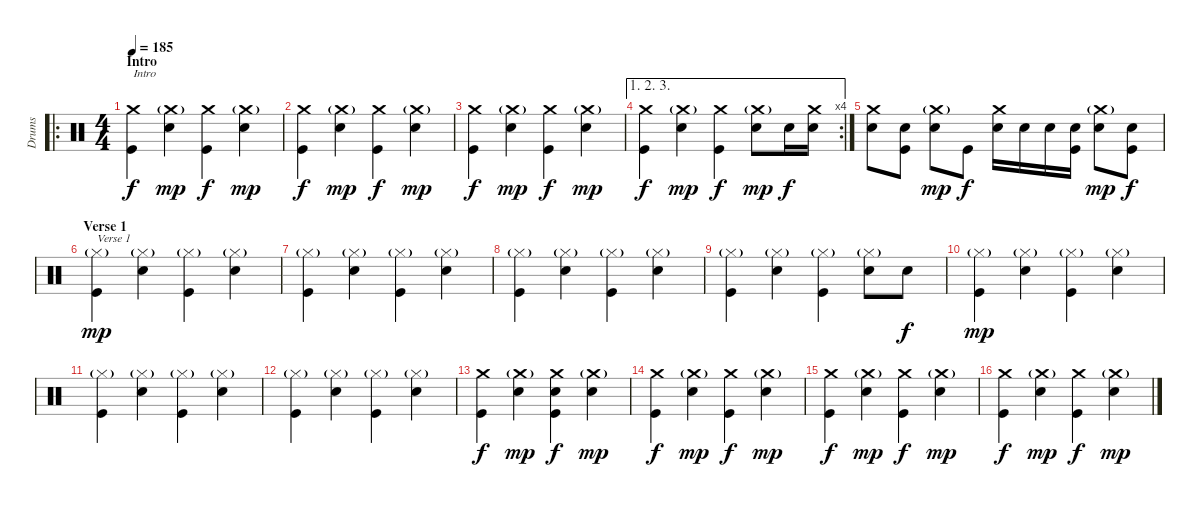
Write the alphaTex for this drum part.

\track ("Drums" "Drums") {instrument percussion}
\staff {score}
\articulation defaults
\ro
\ts (4 4)
\section ("" "Intro")
\tempo 185
\clef neutral
\ks c
("Crash medium (hit)" "Kick (hit)").4{txt "Intro" dy f} ("Crash medium (hit)"{g} "Snare (hit) 2").4{dy mp} ("Crash medium (hit)" "Kick (hit)").4{dy f} ("Crash medium (hit)"{g} "Snare (hit) 2").4{dy mp} |
("Crash medium (hit)" "Kick (hit)").4{dy f} ("Crash medium (hit)"{g} "Snare (hit) 2").4{dy mp} ("Crash medium (hit)" "Kick (hit)").4{dy f} ("Crash medium (hit)"{g} "Snare (hit) 2").4{dy mp} |
("Crash medium (hit)" "Kick (hit)").4{dy f} ("Crash medium (hit)"{g} "Snare (hit) 2").4{dy mp} ("Crash medium (hit)" "Kick (hit)").4{dy f} ("Crash medium (hit)"{g} "Snare (hit) 2").4{dy mp} |
\ae (1 2 3)
\rc 4
("Crash medium (hit)" "Kick (hit)").4{dy f} ("Crash medium (hit)"{g} "Snare (hit) 2").4{dy mp} ("Crash medium (hit)" "Kick (hit)").4{dy f} ("Crash medium (hit)"{g} "Snare (hit) 2").8{dy mp} "Snare (hit) 2".16{dy f} ("Crash medium (hit)" "Snare (hit) 2").16 |
("Crash medium (hit)" "Snare (hit) 2").8 ("Snare (hit) 2" "Kick (hit)").8 ("Crash medium (hit)"{g} "Snare (hit) 2").8{dy mp} "Kick (hit)".8{dy f} ("Crash medium (hit)" "Snare (hit) 2").16 "Snare (hit) 2".16 "Snare (hit) 2".16 ("Snare (hit) 2" "Kick (hit)").16 ("Crash medium (hit)"{g} "Snare (hit) 2").8{dy mp} ("Snare (hit) 2" "Kick (hit)").8{dy f} |
\section ("" "Verse 1")
("Hi-Hat (closed)"{g} "Kick (hit)").4{txt "Verse 1" dy mp} ("Hi-Hat (closed)"{g} "Snare (hit) 2").4 ("Hi-Hat (closed)"{g} "Kick (hit)").4 ("Hi-Hat (closed)"{g} "Snare (hit) 2").4 |
("Hi-Hat (closed)"{g} "Kick (hit)").4 ("Hi-Hat (closed)"{g} "Snare (hit) 2").4 ("Hi-Hat (closed)"{g} "Kick (hit)").4 ("Hi-Hat (closed)"{g} "Snare (hit) 2").4 |
("Hi-Hat (closed)"{g} "Kick (hit)").4 ("Hi-Hat (closed)"{g} "Snare (hit) 2").4 ("Hi-Hat (closed)"{g} "Kick (hit)").4 ("Hi-Hat (closed)"{g} "Snare (hit) 2").4 |
("Hi-Hat (closed)"{g} "Kick (hit)").4 ("Hi-Hat (closed)"{g} "Snare (hit) 2").4 ("Hi-Hat (closed)"{g} "Kick (hit)").4 ("Hi-Hat (closed)"{g} "Electric Snare (hit)").8 "Snare (hit) 2".8{dy f} |
("Hi-Hat (closed)"{g} "Kick (hit)").4{dy mp} ("Hi-Hat (closed)"{g} "Snare (hit) 2").4 ("Hi-Hat (closed)"{g} "Kick (hit)").4 ("Hi-Hat (closed)"{g} "Snare (hit) 2").4 |
("Hi-Hat (closed)"{g} "Kick (hit)").4 ("Hi-Hat (closed)"{g} "Snare (hit) 2").4 ("Hi-Hat (closed)"{g} "Kick (hit)").4 ("Hi-Hat (closed)"{g} "Snare (hit) 2").4 |
("Hi-Hat (closed)"{g} "Kick (hit)").4 ("Hi-Hat (closed)"{g} "Snare (hit) 2").4 ("Hi-Hat (closed)"{g} "Kick (hit)").4 ("Hi-Hat (closed)"{g} "Snare (hit) 2").4 |
("Crash medium (hit)" "Kick (hit)").4{dy f} ("Crash medium (hit)"{g} "Snare (hit) 2").4{dy mp} ("Crash medium (hit)" "Snare (hit) 2" "Kick (hit)").4{dy f} ("Crash medium (hit)"{g} "Snare (hit) 2").4{dy mp} |
("Crash medium (hit)" "Kick (hit)").4{dy f} ("Crash medium (hit)"{g} "Snare (hit) 2").4{dy mp} ("Crash medium (hit)" "Kick (hit)").4{dy f} ("Crash medium (hit)"{g} "Snare (hit) 2").4{dy mp} |
("Crash medium (hit)" "Kick (hit)").4{dy f} ("Crash medium (hit)"{g} "Snare (hit) 2").4{dy mp} ("Crash medium (hit)" "Kick (hit)").4{dy f} ("Crash medium (hit)"{g} "Snare (hit) 2").4{dy mp} |
("Crash medium (hit)" "Kick (hit)").4{dy f} ("Crash medium (hit)"{g} "Snare (hit) 2").4{dy mp} ("Crash medium (hit)" "Kick (hit)").4{dy f} ("Crash medium (hit)"{g} "Snare (hit) 2").4{dy mp}
